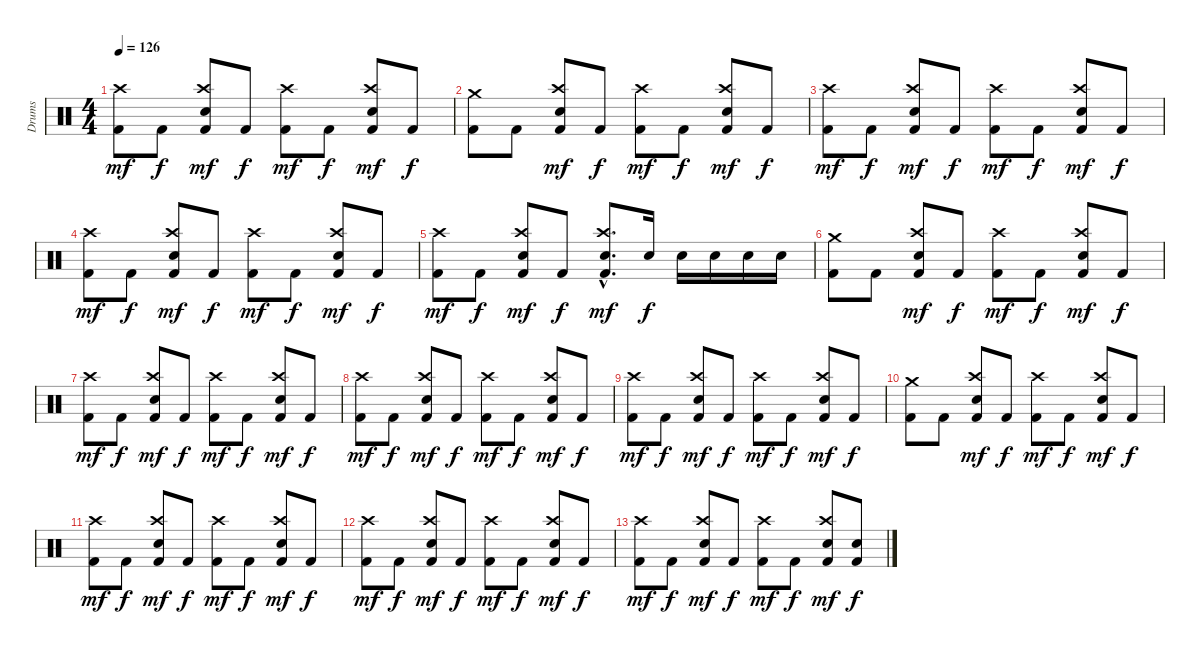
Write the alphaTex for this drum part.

\track ("Drums" "Drums") {instrument percussion}
\staff {score}
\articulation defaults
\ts (4 4)
\tempo 126
\clef neutral
\ks c
("Kick (hit) 2" "Crash high (hit)").8{dy mf} "Kick (hit) 2".8{dy f} ("Kick (hit) 2" "Electric Snare (hit)" "Crash high (hit)").8{dy mf} "Kick (hit) 2".8{dy f} ("Kick (hit) 2" "Crash high (hit)").8{dy mf} "Kick (hit) 2".8{dy f} ("Kick (hit) 2" "Electric Snare (hit)" "Crash high (hit)").8{dy mf} "Kick (hit) 2".8{dy f} |
("Kick (hit) 2" "Crash medium (hit)").8 "Kick (hit) 2".8 ("Kick (hit) 2" "Electric Snare (hit)" "Crash high (hit)").8{dy mf} "Kick (hit) 2".8{dy f} ("Kick (hit) 2" "Crash high (hit)").8{dy mf} "Kick (hit) 2".8{dy f} ("Kick (hit) 2" "Electric Snare (hit)" "Crash high (hit)").8{dy mf} "Kick (hit) 2".8{dy f} |
("Kick (hit) 2" "Crash high (hit)").8{dy mf} "Kick (hit) 2".8{dy f} ("Kick (hit) 2" "Electric Snare (hit)" "Crash high (hit)").8{dy mf} "Kick (hit) 2".8{dy f} ("Kick (hit) 2" "Crash high (hit)").8{dy mf} "Kick (hit) 2".8{dy f} ("Kick (hit) 2" "Electric Snare (hit)" "Crash high (hit)").8{dy mf} "Kick (hit) 2".8{dy f} |
("Kick (hit) 2" "Crash high (hit)").8{dy mf} "Kick (hit) 2".8{dy f} ("Kick (hit) 2" "Electric Snare (hit)" "Crash high (hit)").8{dy mf} "Kick (hit) 2".8{dy f} ("Kick (hit) 2" "Crash high (hit)").8{dy mf} "Kick (hit) 2".8{dy f} ("Kick (hit) 2" "Electric Snare (hit)" "Crash high (hit)").8{dy mf} "Kick (hit) 2".8{dy f} |
("Kick (hit) 2" "Crash high (hit)").8{dy mf} "Kick (hit) 2".8{dy f} ("Kick (hit) 2" "Electric Snare (hit)" "Crash high (hit)").8{dy mf} "Kick (hit) 2".8{dy f} ("Kick (hit) 2"{hac} "Electric Snare (hit)"{hac} "Crash high (hit)"{hac}).8{d dy mf} "Electric Snare (hit)".16{dy f} "Electric Snare (hit)".16 "Electric Snare (hit)".16 "Electric Snare (hit)".16 "Electric Snare (hit)".16 |
("Kick (hit) 2" "Crash medium (hit)").8 "Kick (hit) 2".8 ("Kick (hit) 2" "Electric Snare (hit)" "Crash high (hit)").8{dy mf} "Kick (hit) 2".8{dy f} ("Kick (hit) 2" "Crash high (hit)").8{dy mf} "Kick (hit) 2".8{dy f} ("Kick (hit) 2" "Electric Snare (hit)" "Crash high (hit)").8{dy mf} "Kick (hit) 2".8{dy f} |
("Kick (hit) 2" "Crash high (hit)").8{dy mf} "Kick (hit) 2".8{dy f} ("Kick (hit) 2" "Electric Snare (hit)" "Crash high (hit)").8{dy mf} "Kick (hit) 2".8{dy f} ("Kick (hit) 2" "Crash high (hit)").8{dy mf} "Kick (hit) 2".8{dy f} ("Kick (hit) 2" "Electric Snare (hit)" "Crash high (hit)").8{dy mf} "Kick (hit) 2".8{dy f} |
("Kick (hit) 2" "Crash high (hit)").8{dy mf} "Kick (hit) 2".8{dy f} ("Kick (hit) 2" "Electric Snare (hit)" "Crash high (hit)").8{dy mf} "Kick (hit) 2".8{dy f} ("Kick (hit) 2" "Crash high (hit)").8{dy mf} "Kick (hit) 2".8{dy f} ("Kick (hit) 2" "Electric Snare (hit)" "Crash high (hit)").8{dy mf} "Kick (hit) 2".8{dy f} |
("Kick (hit) 2" "Crash high (hit)").8{dy mf} "Kick (hit) 2".8{dy f} ("Kick (hit) 2" "Electric Snare (hit)" "Crash high (hit)").8{dy mf} "Kick (hit) 2".8{dy f} ("Kick (hit) 2" "Crash high (hit)").8{dy mf} "Kick (hit) 2".8{dy f} ("Kick (hit) 2" "Electric Snare (hit)" "Crash high (hit)").8{dy mf} "Kick (hit) 2".8{dy f} |
("Kick (hit) 2" "Crash medium (hit)").8 "Kick (hit) 2".8 ("Kick (hit) 2" "Electric Snare (hit)" "Crash high (hit)").8{dy mf} "Kick (hit) 2".8{dy f} ("Kick (hit) 2" "Crash high (hit)").8{dy mf} "Kick (hit) 2".8{dy f} ("Kick (hit) 2" "Electric Snare (hit)" "Crash high (hit)").8{dy mf} "Kick (hit) 2".8{dy f} |
("Kick (hit) 2" "Crash high (hit)").8{dy mf} "Kick (hit) 2".8{dy f} ("Kick (hit) 2" "Electric Snare (hit)" "Crash high (hit)").8{dy mf} "Kick (hit) 2".8{dy f} ("Kick (hit) 2" "Crash high (hit)").8{dy mf} "Kick (hit) 2".8{dy f} ("Kick (hit) 2" "Electric Snare (hit)" "Crash high (hit)").8{dy mf} "Kick (hit) 2".8{dy f} |
("Kick (hit) 2" "Crash high (hit)").8{dy mf} "Kick (hit) 2".8{dy f} ("Kick (hit) 2" "Electric Snare (hit)" "Crash high (hit)").8{dy mf} "Kick (hit) 2".8{dy f} ("Kick (hit) 2" "Crash high (hit)").8{dy mf} "Kick (hit) 2".8{dy f} ("Kick (hit) 2" "Electric Snare (hit)" "Crash high (hit)").8{dy mf} "Kick (hit) 2".8{dy f} |
("Kick (hit) 2" "Crash high (hit)").8{dy mf} "Kick (hit) 2".8{dy f} ("Kick (hit) 2" "Electric Snare (hit)" "Crash high (hit)").8{dy mf} "Kick (hit) 2".8{dy f} ("Kick (hit) 2" "Crash high (hit)").8{dy mf} "Kick (hit) 2".8{dy f} ("Kick (hit) 2" "Electric Snare (hit)" "Crash high (hit)").8{dy mf} ("Kick (hit) 2" "Electric Snare (hit)").8{dy f}
